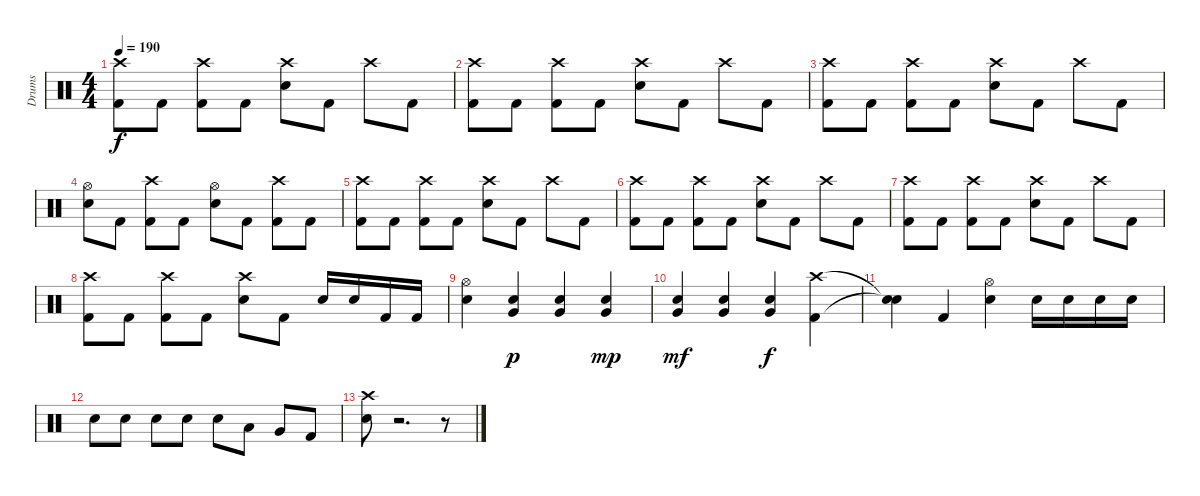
\track ("Drums" "Drums") {instrument percussion}
\staff {score}
\articulation defaults
\ts (4 4)
\tempo 190
\clef neutral
\ks c
("Crash high (hit)" "Kick (hit) 2").8{dy f} "Kick (hit) 2".8 ("Crash high (hit)" "Kick (hit) 2").8 "Kick (hit) 2".8 ("Crash high (hit)" "Electric Snare (hit)").8 "Kick (hit) 2".8 "Crash high (hit)".8 "Kick (hit) 2".8 |
("Crash high (hit)" "Kick (hit) 2").8 "Kick (hit) 2".8 ("Crash high (hit)" "Kick (hit) 2").8 "Kick (hit) 2".8 ("Crash high (hit)" "Electric Snare (hit)").8 "Kick (hit) 2".8 "Crash high (hit)".8 "Kick (hit) 2".8 |
("Crash high (hit)" "Kick (hit) 2").8 "Kick (hit) 2".8 ("Crash high (hit)" "Kick (hit) 2").8 "Kick (hit) 2".8 ("Crash high (hit)" "Electric Snare (hit)").8 "Kick (hit) 2".8 "Crash high (hit)".8 "Kick (hit) 2".8 |
("Hi-Hat (open)" "Electric Snare (hit)").8 "Kick (hit) 2".8 ("Crash high (hit)" "Kick (hit) 2").8 "Kick (hit) 2".8 ("Hi-Hat (open)" "Electric Snare (hit)").8 "Kick (hit) 2".8 ("Crash high (hit)" "Kick (hit) 2").8 "Kick (hit) 2".8 |
("Crash high (hit)" "Kick (hit) 2").8 "Kick (hit) 2".8 ("Crash high (hit)" "Kick (hit) 2").8 "Kick (hit) 2".8 ("Crash high (hit)" "Electric Snare (hit)").8 "Kick (hit) 2".8 "Crash high (hit)".8 "Kick (hit) 2".8 |
("Crash high (hit)" "Kick (hit) 2").8 "Kick (hit) 2".8 ("Crash high (hit)" "Kick (hit) 2").8 "Kick (hit) 2".8 ("Crash high (hit)" "Electric Snare (hit)").8 "Kick (hit) 2".8 "Crash high (hit)".8 "Kick (hit) 2".8 |
("Crash high (hit)" "Kick (hit) 2").8 "Kick (hit) 2".8 ("Crash high (hit)" "Kick (hit) 2").8 "Kick (hit) 2".8 ("Crash high (hit)" "Electric Snare (hit)").8 "Kick (hit) 2".8 "Crash high (hit)".8 "Kick (hit) 2".8 |
("Crash high (hit)" "Kick (hit) 2").8 "Kick (hit) 2".8 ("Crash high (hit)" "Kick (hit) 2").8 "Kick (hit) 2".8 ("Crash high (hit)" "Electric Snare (hit)").8 "Kick (hit) 2".8 "Electric Snare (hit)".16 "Electric Snare (hit)".16 "Kick (hit) 2".16 "Kick (hit) 2".16 |
("Hi-Hat (open)" "Electric Snare (hit)").4 ("Very Low Tom (hit)" "Electric Snare (hit)").4{dy p} ("Very Low Tom (hit)" "Electric Snare (hit)").4 ("Very Low Tom (hit)" "Electric Snare (hit)").4{dy mp} |
("Very Low Tom (hit)" "Electric Snare (hit)").4{dy mf} ("Very Low Tom (hit)" "Electric Snare (hit)").4 ("Very Low Tom (hit)" "Electric Snare (hit)").4{dy f} ("Crash high (hit)" "Kick (hit) 2").4 |
("Snare (hit)"{t} "Snare (hit)"{t}).4 "Kick (hit) 2".4 ("Hi-Hat (open)" "Electric Snare (hit)").4 "Electric Snare (hit)".16 "Electric Snare (hit)".16 "Electric Snare (hit)".16 "Electric Snare (hit)".16 |
"Electric Snare (hit)".8 "Electric Snare (hit)".8 "Electric Snare (hit)".8 "Electric Snare (hit)".8 "Electric Snare (hit)".8 "Low Tom (hit)".8 "Very Low Tom (hit)".8 "Kick (hit) 2".8 |
("Crash high (hit)" "Electric Snare (hit)").8 r.2{d volume 0} r.8
